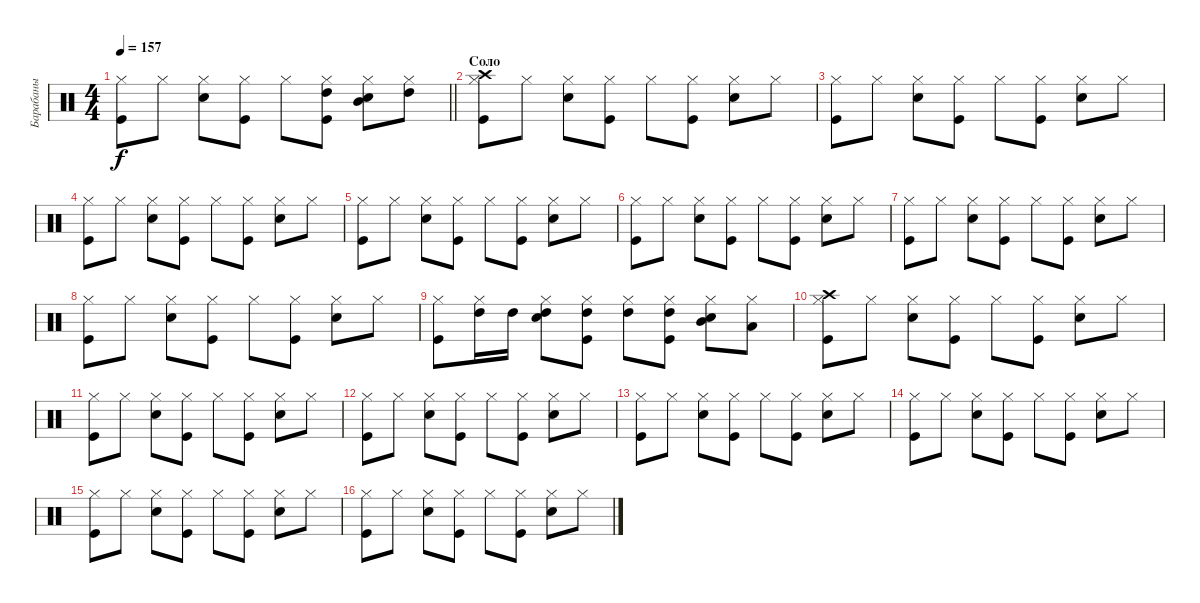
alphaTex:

\track ("Барабаны" "Барабаны") {instrument percussion}
\staff {score}
\articulation defaults
\ts (4 4)
\tempo 157
\clef neutral
\barLineRight lightlight
\ks c
("Kick (hit)" "Hi-Hat (closed)").8{dy f} "Hi-Hat (closed)".8 ("Snare (hit) 2" "Hi-Hat (closed)").8 ("Kick (hit)" "Hi-Hat (closed)").8 "Hi-Hat (closed)".8 ("Kick (hit)" "Hi-Hat (closed)" "High Tom (hit)").8 ("Snare (hit) 2" "Hi-Hat (closed)" "Mid Tom (hit)").8 ("Hi-Hat (closed)" "High Tom (hit)").8 |
\section ("" "Соло")
("Kick (hit)" "Hi-Hat (closed)" "Crash high (hit)").8 "Hi-Hat (closed)".8 ("Snare (hit) 2" "Hi-Hat (closed)").8 ("Kick (hit)" "Hi-Hat (closed)").8 "Hi-Hat (closed)".8 ("Kick (hit)" "Hi-Hat (closed)").8 ("Snare (hit) 2" "Hi-Hat (closed)").8 "Hi-Hat (closed)".8 |
("Kick (hit)" "Hi-Hat (closed)").8 "Hi-Hat (closed)".8 ("Snare (hit) 2" "Hi-Hat (closed)").8 ("Kick (hit)" "Hi-Hat (closed)").8 "Hi-Hat (closed)".8 ("Kick (hit)" "Hi-Hat (closed)").8 ("Snare (hit) 2" "Hi-Hat (closed)").8 "Hi-Hat (closed)".8 |
("Kick (hit)" "Hi-Hat (closed)").8 "Hi-Hat (closed)".8 ("Snare (hit) 2" "Hi-Hat (closed)").8 ("Kick (hit)" "Hi-Hat (closed)").8 "Hi-Hat (closed)".8 ("Kick (hit)" "Hi-Hat (closed)").8 ("Snare (hit) 2" "Hi-Hat (closed)").8 "Hi-Hat (closed)".8 |
("Kick (hit)" "Hi-Hat (closed)").8 "Hi-Hat (closed)".8 ("Snare (hit) 2" "Hi-Hat (closed)").8 ("Kick (hit)" "Hi-Hat (closed)").8 "Hi-Hat (closed)".8 ("Kick (hit)" "Hi-Hat (closed)").8 ("Snare (hit) 2" "Hi-Hat (closed)").8 "Hi-Hat (closed)".8 |
("Kick (hit)" "Hi-Hat (closed)").8 "Hi-Hat (closed)".8 ("Snare (hit) 2" "Hi-Hat (closed)").8 ("Kick (hit)" "Hi-Hat (closed)").8 "Hi-Hat (closed)".8 ("Kick (hit)" "Hi-Hat (closed)").8 ("Snare (hit) 2" "Hi-Hat (closed)").8 "Hi-Hat (closed)".8 |
("Kick (hit)" "Hi-Hat (closed)").8 "Hi-Hat (closed)".8 ("Snare (hit) 2" "Hi-Hat (closed)").8 ("Kick (hit)" "Hi-Hat (closed)").8 "Hi-Hat (closed)".8 ("Kick (hit)" "Hi-Hat (closed)").8 ("Snare (hit) 2" "Hi-Hat (closed)").8 "Hi-Hat (closed)".8 |
("Kick (hit)" "Hi-Hat (closed)").8 "Hi-Hat (closed)".8 ("Snare (hit) 2" "Hi-Hat (closed)").8 ("Kick (hit)" "Hi-Hat (closed)").8 "Hi-Hat (closed)".8 ("Kick (hit)" "Hi-Hat (closed)").8 ("Snare (hit) 2" "Hi-Hat (closed)").8 "Hi-Hat (closed)".8 |
("Kick (hit)" "Hi-Hat (closed)").8 ("Hi-Hat (closed)" "High Tom (hit)").16 "High Tom (hit)".16 ("Snare (hit) 2" "Hi-Hat (closed)" "High Tom (hit)").8 ("Kick (hit)" "Hi-Hat (closed)" "High Tom (hit)").8 ("Hi-Hat (closed)" "High Tom (hit)").8 ("Kick (hit)" "Hi-Hat (closed)" "High Tom (hit)").8 ("Snare (hit) 2" "Hi-Hat (closed)" "Mid Tom (hit)").8 ("Hi-Hat (closed)" "Low Tom (hit)").8 |
("Kick (hit)" "Hi-Hat (closed)" "Crash high (hit)").8 "Hi-Hat (closed)".8 ("Snare (hit) 2" "Hi-Hat (closed)").8 ("Kick (hit)" "Hi-Hat (closed)").8 "Hi-Hat (closed)".8 ("Kick (hit)" "Hi-Hat (closed)").8 ("Snare (hit) 2" "Hi-Hat (closed)").8 "Hi-Hat (closed)".8 |
("Kick (hit)" "Hi-Hat (closed)").8 "Hi-Hat (closed)".8 ("Snare (hit) 2" "Hi-Hat (closed)").8 ("Kick (hit)" "Hi-Hat (closed)").8 "Hi-Hat (closed)".8 ("Kick (hit)" "Hi-Hat (closed)").8 ("Snare (hit) 2" "Hi-Hat (closed)").8 "Hi-Hat (closed)".8 |
("Kick (hit)" "Hi-Hat (closed)").8 "Hi-Hat (closed)".8 ("Snare (hit) 2" "Hi-Hat (closed)").8 ("Kick (hit)" "Hi-Hat (closed)").8 "Hi-Hat (closed)".8 ("Kick (hit)" "Hi-Hat (closed)").8 ("Snare (hit) 2" "Hi-Hat (closed)").8 "Hi-Hat (closed)".8 |
("Kick (hit)" "Hi-Hat (closed)").8 "Hi-Hat (closed)".8 ("Snare (hit) 2" "Hi-Hat (closed)").8 ("Kick (hit)" "Hi-Hat (closed)").8 "Hi-Hat (closed)".8 ("Kick (hit)" "Hi-Hat (closed)").8 ("Snare (hit) 2" "Hi-Hat (closed)").8 "Hi-Hat (closed)".8 |
("Kick (hit)" "Hi-Hat (closed)").8 "Hi-Hat (closed)".8 ("Snare (hit) 2" "Hi-Hat (closed)").8 ("Kick (hit)" "Hi-Hat (closed)").8 "Hi-Hat (closed)".8 ("Kick (hit)" "Hi-Hat (closed)").8 ("Snare (hit) 2" "Hi-Hat (closed)").8 "Hi-Hat (closed)".8 |
("Kick (hit)" "Hi-Hat (closed)").8 "Hi-Hat (closed)".8 ("Snare (hit) 2" "Hi-Hat (closed)").8 ("Kick (hit)" "Hi-Hat (closed)").8 "Hi-Hat (closed)".8 ("Kick (hit)" "Hi-Hat (closed)").8 ("Snare (hit) 2" "Hi-Hat (closed)").8 "Hi-Hat (closed)".8 |
("Kick (hit)" "Hi-Hat (closed)").8 "Hi-Hat (closed)".8 ("Snare (hit) 2" "Hi-Hat (closed)").8 ("Kick (hit)" "Hi-Hat (closed)").8 "Hi-Hat (closed)".8 ("Kick (hit)" "Hi-Hat (closed)").8 ("Snare (hit) 2" "Hi-Hat (closed)").8 "Hi-Hat (closed)".8
